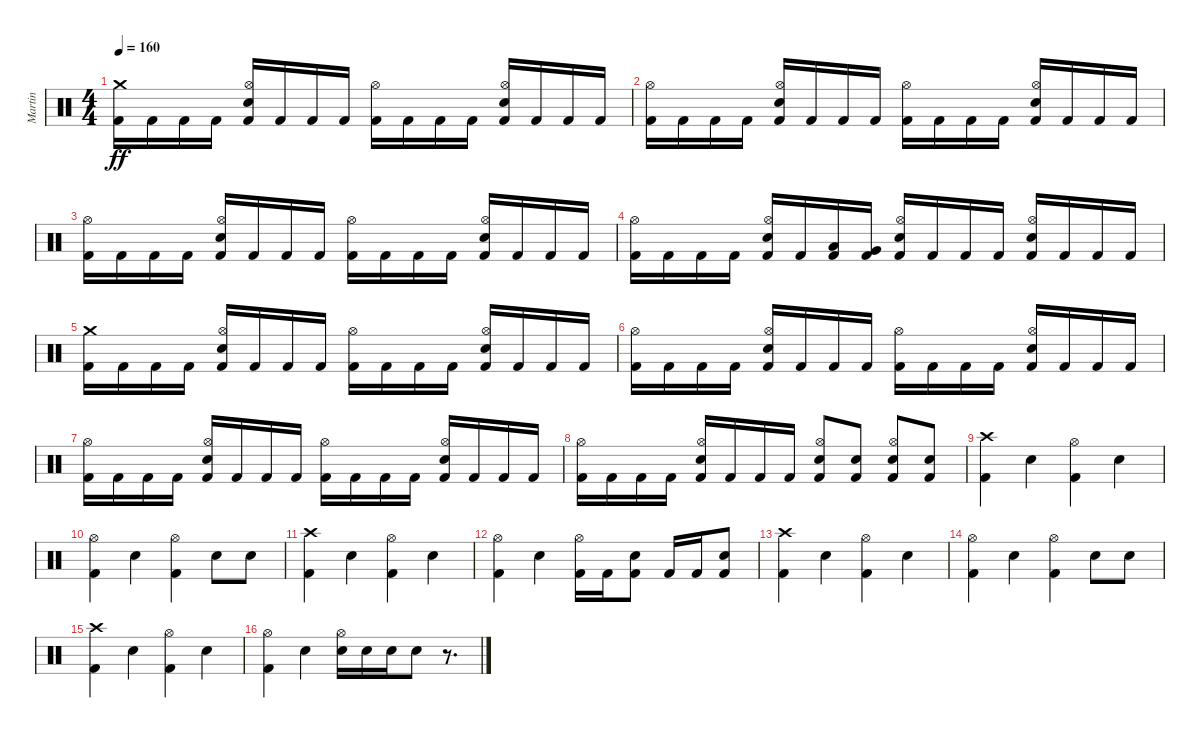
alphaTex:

\track ("Martin" "Martin") {instrument percussion}
\staff {score}
\articulation defaults
\ts (4 4)
\tempo 160
\clef neutral
\ks c
("Crash medium (hit)" "Kick (hit) 2").16{dy ff} "Kick (hit) 2".16 "Kick (hit) 2".16 "Kick (hit) 2".16 ("Hi-Hat (open)" "Electric Snare (hit)" "Kick (hit) 2").16 "Kick (hit) 2".16 "Kick (hit) 2".16 "Kick (hit) 2".16 ("Hi-Hat (open)" "Kick (hit) 2").16 "Kick (hit) 2".16 "Kick (hit) 2".16 "Kick (hit) 2".16 ("Hi-Hat (open)" "Electric Snare (hit)" "Kick (hit) 2").16 "Kick (hit) 2".16 "Kick (hit) 2".16 "Kick (hit) 2".16 |
("Hi-Hat (open)" "Kick (hit) 2").16 "Kick (hit) 2".16 "Kick (hit) 2".16 "Kick (hit) 2".16 ("Hi-Hat (open)" "Electric Snare (hit)" "Kick (hit) 2").16 "Kick (hit) 2".16 "Kick (hit) 2".16 "Kick (hit) 2".16 ("Hi-Hat (open)" "Kick (hit) 2").16 "Kick (hit) 2".16 "Kick (hit) 2".16 "Kick (hit) 2".16 ("Hi-Hat (open)" "Electric Snare (hit)" "Kick (hit) 2").16 "Kick (hit) 2".16 "Kick (hit) 2".16 "Kick (hit) 2".16 |
("Hi-Hat (open)" "Kick (hit) 2").16 "Kick (hit) 2".16 "Kick (hit) 2".16 "Kick (hit) 2".16 ("Hi-Hat (open)" "Electric Snare (hit)" "Kick (hit) 2").16 "Kick (hit) 2".16 "Kick (hit) 2".16 "Kick (hit) 2".16 ("Hi-Hat (open)" "Kick (hit) 2").16 "Kick (hit) 2".16 "Kick (hit) 2".16 "Kick (hit) 2".16 ("Hi-Hat (open)" "Electric Snare (hit)" "Kick (hit) 2").16 "Kick (hit) 2".16 "Kick (hit) 2".16 "Kick (hit) 2".16 |
("Hi-Hat (open)" "Kick (hit) 2").16 "Kick (hit) 2".16 "Kick (hit) 2".16 "Kick (hit) 2".16 ("Hi-Hat (open)" "Electric Snare (hit)" "Kick (hit) 2").16 "Kick (hit) 2".16 ("Low Floor Tom (hit)" "Kick (hit) 2").16 ("Very Low Tom (hit)" "Kick (hit) 2").16 ("Hi-Hat (open)" "Electric Snare (hit)" "Kick (hit) 2").16 "Kick (hit) 2".16 "Kick (hit) 2".16 "Kick (hit) 2".16 ("Hi-Hat (open)" "Electric Snare (hit)" "Kick (hit) 2").16 "Kick (hit) 2".16 "Kick (hit) 2".16 "Kick (hit) 2".16 |
("Crash medium (hit)" "Kick (hit) 2").16 "Kick (hit) 2".16 "Kick (hit) 2".16 "Kick (hit) 2".16 ("Hi-Hat (open)" "Electric Snare (hit)" "Kick (hit) 2").16 "Kick (hit) 2".16 "Kick (hit) 2".16 "Kick (hit) 2".16 ("Hi-Hat (open)" "Kick (hit) 2").16 "Kick (hit) 2".16 "Kick (hit) 2".16 "Kick (hit) 2".16 ("Hi-Hat (open)" "Electric Snare (hit)" "Kick (hit) 2").16 "Kick (hit) 2".16 "Kick (hit) 2".16 "Kick (hit) 2".16 |
("Hi-Hat (open)" "Kick (hit) 2").16 "Kick (hit) 2".16 "Kick (hit) 2".16 "Kick (hit) 2".16 ("Hi-Hat (open)" "Electric Snare (hit)" "Kick (hit) 2").16 "Kick (hit) 2".16 "Kick (hit) 2".16 "Kick (hit) 2".16 ("Hi-Hat (open)" "Kick (hit) 2").16 "Kick (hit) 2".16 "Kick (hit) 2".16 "Kick (hit) 2".16 ("Hi-Hat (open)" "Electric Snare (hit)" "Kick (hit) 2").16 "Kick (hit) 2".16 "Kick (hit) 2".16 "Kick (hit) 2".16 |
("Hi-Hat (open)" "Kick (hit) 2").16 "Kick (hit) 2".16 "Kick (hit) 2".16 "Kick (hit) 2".16 ("Hi-Hat (open)" "Electric Snare (hit)" "Kick (hit) 2").16 "Kick (hit) 2".16 "Kick (hit) 2".16 "Kick (hit) 2".16 ("Hi-Hat (open)" "Kick (hit) 2").16 "Kick (hit) 2".16 "Kick (hit) 2".16 "Kick (hit) 2".16 ("Hi-Hat (open)" "Electric Snare (hit)" "Kick (hit) 2").16 "Kick (hit) 2".16 "Kick (hit) 2".16 "Kick (hit) 2".16 |
("Hi-Hat (open)" "Kick (hit) 2").16 "Kick (hit) 2".16 "Kick (hit) 2".16 "Kick (hit) 2".16 ("Hi-Hat (open)" "Electric Snare (hit)" "Kick (hit) 2").16 "Kick (hit) 2".16 "Kick (hit) 2".16 "Kick (hit) 2".16 ("Hi-Hat (open)" "Electric Snare (hit)" "Kick (hit) 2").8 ("Electric Snare (hit)" "Kick (hit) 2").8 ("Hi-Hat (open)" "Electric Snare (hit)" "Kick (hit) 2").8 ("Electric Snare (hit)" "Kick (hit) 2").8 |
("Crash high (hit)" "Kick (hit) 2").4 "Electric Snare (hit)".4 ("Hi-Hat (open)" "Kick (hit) 2").4 "Electric Snare (hit)".4 |
("Hi-Hat (open)" "Kick (hit) 2").4 "Electric Snare (hit)".4 ("Hi-Hat (open)" "Kick (hit) 2").4 "Electric Snare (hit)".8 "Electric Snare (hit)".8 |
("Crash high (hit)" "Kick (hit) 2").4 "Electric Snare (hit)".4 ("Hi-Hat (open)" "Kick (hit) 2").4 "Electric Snare (hit)".4 |
("Hi-Hat (open)" "Kick (hit) 2").4 "Electric Snare (hit)".4 ("Hi-Hat (open)" "Kick (hit) 2").16 "Kick (hit) 2".16 ("Electric Snare (hit)" "Kick (hit) 2").8 "Kick (hit) 2".16 "Kick (hit) 2".16 ("Electric Snare (hit)" "Kick (hit) 2").8 |
("Crash high (hit)" "Kick (hit) 2").4 "Electric Snare (hit)".4 ("Hi-Hat (open)" "Kick (hit) 2").4 "Electric Snare (hit)".4 |
("Hi-Hat (open)" "Kick (hit) 2").4 "Electric Snare (hit)".4 ("Hi-Hat (open)" "Kick (hit) 2").4 "Electric Snare (hit)".8 "Electric Snare (hit)".8 |
("Crash high (hit)" "Kick (hit) 2").4 "Electric Snare (hit)".4 ("Hi-Hat (open)" "Kick (hit) 2").4 "Electric Snare (hit)".4 |
("Hi-Hat (open)" "Kick (hit) 2").4 "Electric Snare (hit)".4 ("Hi-Hat (open)" "Electric Snare (hit)").16 "Electric Snare (hit)".16 "Electric Snare (hit)".16 "Electric Snare (hit)".8 r.8{d}
